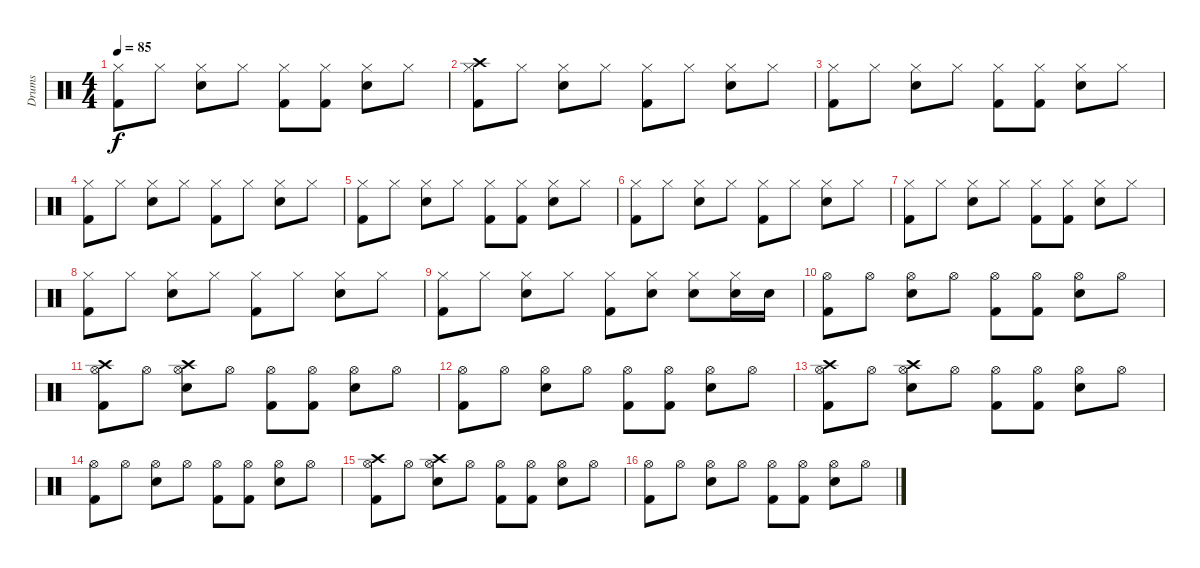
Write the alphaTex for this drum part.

\track ("Drums" "Drums") {instrument percussion}
\staff {score}
\articulation defaults
\ts (4 4)
\tempo 85
\clef neutral
\ks c
("Hi-Hat (closed)" "Kick (hit) 2").8{dy f} "Hi-Hat (closed)".8 ("Hi-Hat (closed)" "Snare (hit) 2").8 "Hi-Hat (closed)".8 ("Hi-Hat (closed)" "Kick (hit) 2").8 ("Hi-Hat (closed)" "Kick (hit) 2").8 ("Hi-Hat (closed)" "Snare (hit) 2").8 "Hi-Hat (closed)".8 |
("Hi-Hat (closed)" "Kick (hit) 2" "Crash high (hit)").8 "Hi-Hat (closed)".8 ("Hi-Hat (closed)" "Snare (hit) 2").8 "Hi-Hat (closed)".8 ("Hi-Hat (closed)" "Kick (hit) 2").8 "Hi-Hat (closed)".8 ("Hi-Hat (closed)" "Snare (hit) 2").8 "Hi-Hat (closed)".8 |
("Hi-Hat (closed)" "Kick (hit) 2").8 "Hi-Hat (closed)".8 ("Hi-Hat (closed)" "Snare (hit) 2").8 "Hi-Hat (closed)".8 ("Hi-Hat (closed)" "Kick (hit) 2").8 ("Hi-Hat (closed)" "Kick (hit) 2").8 ("Hi-Hat (closed)" "Snare (hit) 2").8 "Hi-Hat (closed)".8 |
("Hi-Hat (closed)" "Kick (hit) 2").8 "Hi-Hat (closed)".8 ("Hi-Hat (closed)" "Snare (hit) 2").8 "Hi-Hat (closed)".8 ("Hi-Hat (closed)" "Kick (hit) 2").8 "Hi-Hat (closed)".8 ("Hi-Hat (closed)" "Snare (hit) 2").8 "Hi-Hat (closed)".8 |
("Hi-Hat (closed)" "Kick (hit) 2").8 "Hi-Hat (closed)".8 ("Hi-Hat (closed)" "Snare (hit) 2").8 "Hi-Hat (closed)".8 ("Hi-Hat (closed)" "Kick (hit) 2").8 ("Hi-Hat (closed)" "Kick (hit) 2").8 ("Hi-Hat (closed)" "Snare (hit) 2").8 "Hi-Hat (closed)".8 |
("Hi-Hat (closed)" "Kick (hit) 2").8 "Hi-Hat (closed)".8 ("Hi-Hat (closed)" "Snare (hit) 2").8 "Hi-Hat (closed)".8 ("Hi-Hat (closed)" "Kick (hit) 2").8 "Hi-Hat (closed)".8 ("Hi-Hat (closed)" "Snare (hit) 2").8 "Hi-Hat (closed)".8 |
("Hi-Hat (closed)" "Kick (hit) 2").8 "Hi-Hat (closed)".8 ("Hi-Hat (closed)" "Snare (hit) 2").8 "Hi-Hat (closed)".8 ("Hi-Hat (closed)" "Kick (hit) 2").8 ("Hi-Hat (closed)" "Kick (hit) 2").8 ("Hi-Hat (closed)" "Snare (hit) 2").8 "Hi-Hat (closed)".8 |
("Hi-Hat (closed)" "Kick (hit) 2").8 "Hi-Hat (closed)".8 ("Hi-Hat (closed)" "Snare (hit) 2").8 "Hi-Hat (closed)".8 ("Hi-Hat (closed)" "Kick (hit) 2").8 "Hi-Hat (closed)".8 ("Hi-Hat (closed)" "Snare (hit) 2").8 "Hi-Hat (closed)".8 |
("Hi-Hat (closed)" "Kick (hit) 2").8 "Hi-Hat (closed)".8 ("Hi-Hat (closed)" "Snare (hit) 2").8 "Hi-Hat (closed)".8 ("Hi-Hat (closed)" "Kick (hit) 2").8 ("Hi-Hat (closed)" "Snare (hit) 2").8 ("Hi-Hat (closed)" "Snare (hit) 2").8 ("Hi-Hat (closed)" "Snare (hit) 2").16 "Snare (hit) 2".16 |
("Hi-Hat (open)" "Kick (hit) 2").8 "Hi-Hat (open)".8 ("Hi-Hat (open)" "Snare (hit) 2").8 "Hi-Hat (open)".8 ("Hi-Hat (open)" "Kick (hit) 2").8 ("Hi-Hat (open)" "Kick (hit) 2").8 ("Hi-Hat (open)" "Snare (hit) 2").8 "Hi-Hat (open)".8 |
("Hi-Hat (open)" "Crash high (hit)" "Kick (hit) 2").8 "Hi-Hat (open)".8 ("Hi-Hat (open)" "Crash high (hit)" "Snare (hit) 2").8 "Hi-Hat (open)".8 ("Hi-Hat (open)" "Kick (hit) 2").8 ("Hi-Hat (open)" "Kick (hit) 2").8 ("Hi-Hat (open)" "Snare (hit) 2").8 "Hi-Hat (open)".8 |
("Hi-Hat (open)" "Kick (hit) 2").8 "Hi-Hat (open)".8 ("Hi-Hat (open)" "Snare (hit) 2").8 "Hi-Hat (open)".8 ("Hi-Hat (open)" "Kick (hit) 2").8 ("Hi-Hat (open)" "Kick (hit) 2").8 ("Hi-Hat (open)" "Snare (hit) 2").8 "Hi-Hat (open)".8 |
("Hi-Hat (open)" "Crash high (hit)" "Kick (hit) 2").8 "Hi-Hat (open)".8 ("Hi-Hat (open)" "Crash high (hit)" "Snare (hit) 2").8 "Hi-Hat (open)".8 ("Hi-Hat (open)" "Kick (hit) 2").8 ("Hi-Hat (open)" "Kick (hit) 2").8 ("Hi-Hat (open)" "Snare (hit) 2").8 "Hi-Hat (open)".8 |
("Hi-Hat (open)" "Kick (hit) 2").8 "Hi-Hat (open)".8 ("Hi-Hat (open)" "Snare (hit) 2").8 "Hi-Hat (open)".8 ("Hi-Hat (open)" "Kick (hit) 2").8 ("Hi-Hat (open)" "Kick (hit) 2").8 ("Hi-Hat (open)" "Snare (hit) 2").8 "Hi-Hat (open)".8 |
("Hi-Hat (open)" "Crash high (hit)" "Kick (hit) 2").8 "Hi-Hat (open)".8 ("Hi-Hat (open)" "Crash high (hit)" "Snare (hit) 2").8 "Hi-Hat (open)".8 ("Hi-Hat (open)" "Kick (hit) 2").8 ("Hi-Hat (open)" "Kick (hit) 2").8 ("Hi-Hat (open)" "Snare (hit) 2").8 "Hi-Hat (open)".8 |
("Hi-Hat (open)" "Kick (hit) 2").8 "Hi-Hat (open)".8 ("Hi-Hat (open)" "Snare (hit) 2").8 "Hi-Hat (open)".8 ("Hi-Hat (open)" "Kick (hit) 2").8 ("Hi-Hat (open)" "Kick (hit) 2").8 ("Hi-Hat (open)" "Snare (hit) 2").8 "Hi-Hat (open)".8
